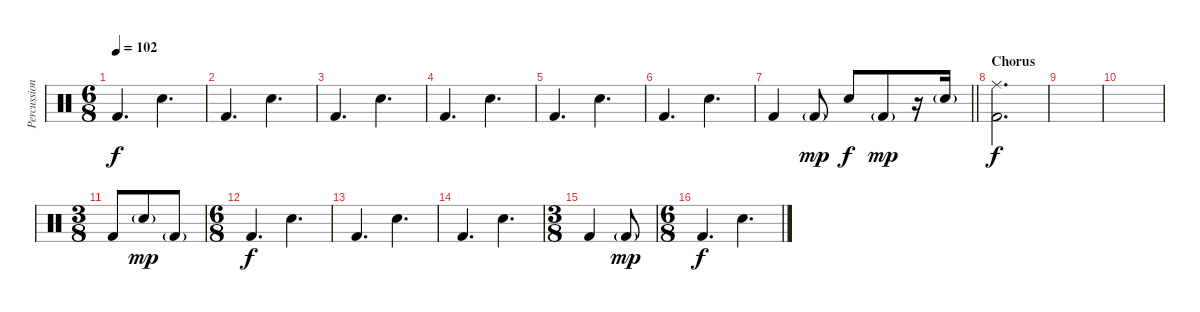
\track ("Percussion" "Percussion") {instrument percussion}
\staff {score}
\articulation defaults
\ts (6 8)
\tempo 102
\clef neutral
\ks c "Kick (hit) 2".4{d dy f} "Snare (hit) 2".4{d}
|
"Kick (hit) 2".4{d} "Snare (hit) 2".4{d} |
"Kick (hit) 2".4{d} "Snare (hit) 2".4{d} |
"Kick (hit) 2".4{d} "Snare (hit) 2".4{d} |
"Kick (hit) 2".4{d} "Snare (hit) 2".4{d} |
"Kick (hit) 2".4{d} "Snare (hit) 2".4{d} |
\barLineRight lightlight "Kick (hit) 2".4 "Kick (hit) 2"{g}.8{dy mp} "Snare (hit) 2".8{dy f} "Kick (hit) 2"{g}.8{dy mp}
r.16 "Snare (hit) 2"{g}.16 |
\section ("" "Chorus")
("Ride (middle)" "Kick (hit) 2").2{d dy f} |
|
|
\ts (3 8)
"Kick (hit) 2".8 "Snare (hit) 2"{g}.8{dy mp} "Kick (hit) 2"{g}.8 |
\ts (6 8)
"Kick (hit) 2".4{d dy f} "Snare (hit) 2".4{d} |
"Kick (hit) 2".4{d} "Snare (hit) 2".4{d} |
"Kick (hit) 2".4{d} "Snare (hit) 2".4{d} |
\ts (3 8)
"Kick (hit) 2".4 "Kick (hit) 2"{g}.8{dy mp} |
\ts (6 8)
"Kick (hit) 2".4{d dy f} "Snare (hit) 2".4{d}
